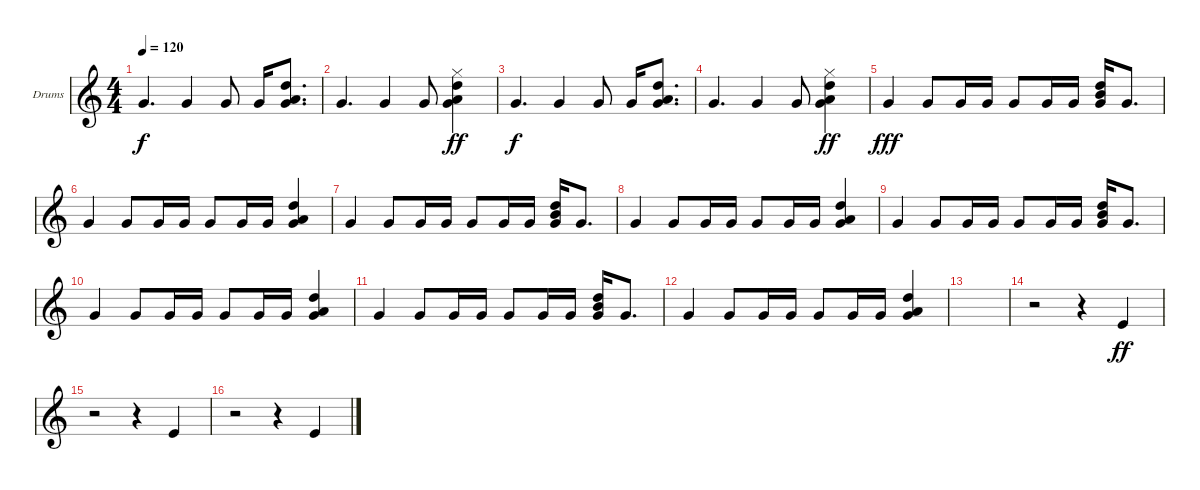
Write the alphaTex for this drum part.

\defaultSystemsLayout 4
\bracketExtendMode groupsimilarinstruments
\firstSystemTrackNameOrientation horizontal
\otherSystemsTrackNameOrientation horizontal
\track ("Drumkit" "Drums") {instrument percussion}
\staff {score}
\articulation defaults
\ts (4 4)
\tempo 120
\clef g2
\ks c "Very Low Tom (hit)".4{d dy f} "Very Low Tom (hit)".4 "Very Low Tom (hit)".8 "Very Low Tom (hit)".16
("Very Low Tom (hit)" "High Tom (hit)" "Low Tom (hit)").8{d} |
"Very Low Tom (hit)".4{d} "Very Low Tom (hit)".4 "Very Low Tom (hit)".8 ("Very Low Tom (hit)" "High Tom (hit)" "Low Tom (hit)" "Hi-Hat (closed)").4{dy ff} |
"Very Low Tom (hit)".4{d dy f} "Very Low Tom (hit)".4 "Very Low Tom (hit)".8 "Very Low Tom (hit)".16 ("Very Low Tom (hit)" "High Tom (hit)" "Low Tom (hit)").8{d} |
"Very Low Tom (hit)".4{d} "Very Low Tom (hit)".4 "Very Low Tom (hit)".8 ("Very Low Tom (hit)" "High Tom (hit)" "Low Tom (hit)" "Hi-Hat (closed)").4{dy ff} |
"Very Low Tom (hit)".4{dy fff} "Very Low Tom (hit)".8 "Very Low Tom (hit)".16 "Very Low Tom (hit)".16 "Very Low Tom (hit)".8 "Very Low Tom (hit)".16 "Very Low Tom (hit)".16 ("Very Low Tom (hit)" "High Tom (hit)" "Mid Tom (hit)").16 "Very Low Tom (hit)".8{d} |
"Very Low Tom (hit)".4 "Very Low Tom (hit)".8 "Very Low Tom (hit)".16 "Very Low Tom (hit)".16 "Very Low Tom (hit)".8 "Very Low Tom (hit)".16 "Very Low Tom (hit)".16 ("Very Low Tom (hit)" "Low Tom (hit)" "High Tom (hit)").4 |
"Very Low Tom (hit)".4 "Very Low Tom (hit)".8 "Very Low Tom (hit)".16 "Very Low Tom (hit)".16 "Very Low Tom (hit)".8 "Very Low Tom (hit)".16 "Very Low Tom (hit)".16 ("Very Low Tom (hit)" "High Tom (hit)" "Mid Tom (hit)").16 "Very Low Tom (hit)".8{d} |
"Very Low Tom (hit)".4 "Very Low Tom (hit)".8 "Very Low Tom (hit)".16 "Very Low Tom (hit)".16 "Very Low Tom (hit)".8 "Very Low Tom (hit)".16 "Very Low Tom (hit)".16 ("Very Low Tom (hit)" "Low Tom (hit)" "High Tom (hit)").4 |
"Very Low Tom (hit)".4 "Very Low Tom (hit)".8 "Very Low Tom (hit)".16 "Very Low Tom (hit)".16 "Very Low Tom (hit)".8 "Very Low Tom (hit)".16 "Very Low Tom (hit)".16 ("Very Low Tom (hit)" "High Tom (hit)" "Mid Tom (hit)").16 "Very Low Tom (hit)".8{d} |
"Very Low Tom (hit)".4 "Very Low Tom (hit)".8 "Very Low Tom (hit)".16 "Very Low Tom (hit)".16 "Very Low Tom (hit)".8 "Very Low Tom (hit)".16 "Very Low Tom (hit)".16 ("Very Low Tom (hit)" "Low Tom (hit)" "High Tom (hit)").4 |
"Very Low Tom (hit)".4 "Very Low Tom (hit)".8 "Very Low Tom (hit)".16 "Very Low Tom (hit)".16 "Very Low Tom (hit)".8 "Very Low Tom (hit)".16 "Very Low Tom (hit)".16 ("Very Low Tom (hit)" "High Tom (hit)" "Mid Tom (hit)").16 "Very Low Tom (hit)".8{d} |
"Very Low Tom (hit)".4 "Very Low Tom (hit)".8 "Very Low Tom (hit)".16 "Very Low Tom (hit)".16 "Very Low Tom (hit)".8 "Very Low Tom (hit)".16 "Very Low Tom (hit)".16 ("Very Low Tom (hit)" "Low Tom (hit)" "High Tom (hit)").4 |
|
r.2 r.4 "Kick (hit)".4{dy ff} |
r.2 r.4 "Kick (hit)".4 |
r.2 r.4 "Kick (hit)".4
